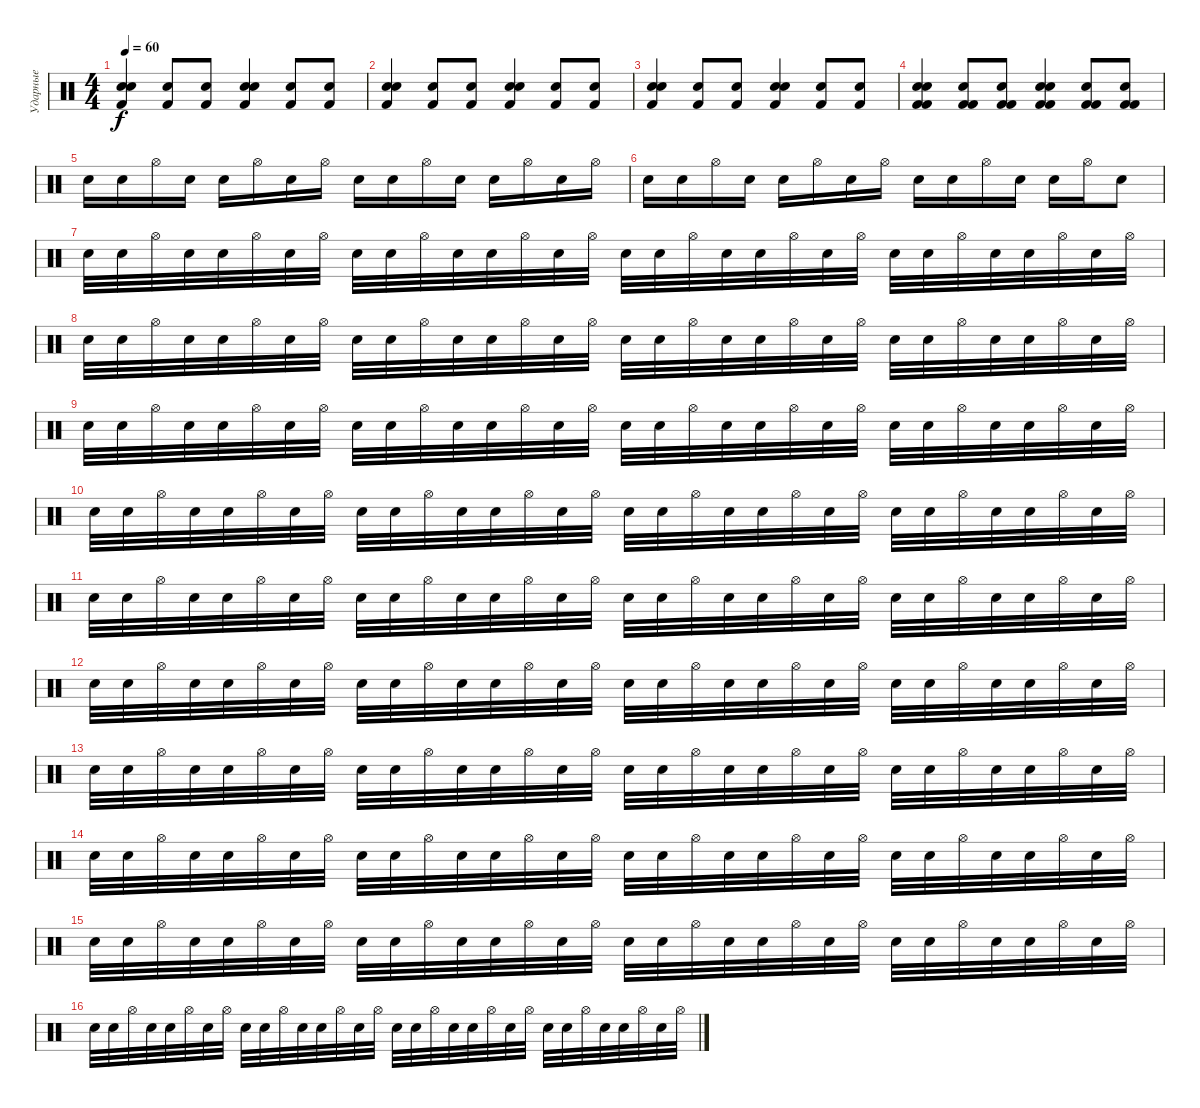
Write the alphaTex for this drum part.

\track ("Ударные" "Ударные") {instrument percussion}
\staff {score}
\articulation defaults
\ts (4 4)
\tempo 60
\clef neutral
\ks c
("Kick (hit) 2" "Electric Snare (hit)" "Electric Snare (hit)").4{dy f} ("Kick (hit) 2" "Electric Snare (hit)").8 ("Kick (hit) 2" "Electric Snare (hit)").8 ("Kick (hit) 2" "Electric Snare (hit)" "Electric Snare (hit)").4 ("Kick (hit) 2" "Electric Snare (hit)").8 ("Kick (hit) 2" "Electric Snare (hit)").8 |
("Kick (hit) 2" "Electric Snare (hit)" "Electric Snare (hit)").4 ("Kick (hit) 2" "Electric Snare (hit)").8 ("Kick (hit) 2" "Electric Snare (hit)").8 ("Kick (hit) 2" "Electric Snare (hit)" "Electric Snare (hit)").4 ("Kick (hit) 2" "Electric Snare (hit)").8 ("Kick (hit) 2" "Electric Snare (hit)").8 |
("Kick (hit) 2" "Electric Snare (hit)" "Electric Snare (hit)").4 ("Kick (hit) 2" "Electric Snare (hit)").8 ("Kick (hit) 2" "Electric Snare (hit)").8 ("Kick (hit) 2" "Electric Snare (hit)" "Electric Snare (hit)").4 ("Kick (hit) 2" "Electric Snare (hit)").8 ("Kick (hit) 2" "Electric Snare (hit)").8 |
("Kick (hit) 2" "Kick (hit) 2" "Electric Snare (hit)" "Electric Snare (hit)").4 ("Kick (hit) 2" "Kick (hit) 2" "Electric Snare (hit)").8 ("Kick (hit) 2" "Kick (hit) 2" "Electric Snare (hit)").8 ("Kick (hit) 2" "Kick (hit) 2" "Electric Snare (hit)" "Electric Snare (hit)").4 ("Kick (hit) 2" "Kick (hit) 2" "Electric Snare (hit)").8 ("Kick (hit) 2" "Kick (hit) 2" "Electric Snare (hit)").8 |
"Electric Snare (hit)".16 "Electric Snare (hit)".16 "Hi-Hat (open)".16 "Electric Snare (hit)".16 "Electric Snare (hit)".16 "Hi-Hat (open)".16 "Electric Snare (hit)".16 "Hi-Hat (open)".16 "Electric Snare (hit)".16 "Electric Snare (hit)".16 "Hi-Hat (open)".16 "Electric Snare (hit)".16 "Electric Snare (hit)".16 "Hi-Hat (open)".16 "Electric Snare (hit)".16 "Hi-Hat (open)".16 |
"Electric Snare (hit)".16 "Electric Snare (hit)".16 "Hi-Hat (open)".16 "Electric Snare (hit)".16 "Electric Snare (hit)".16 "Hi-Hat (open)".16 "Electric Snare (hit)".16 "Hi-Hat (open)".16 "Electric Snare (hit)".16 "Electric Snare (hit)".16 "Hi-Hat (open)".16 "Electric Snare (hit)".16 "Electric Snare (hit)".16 "Hi-Hat (open)".16 "Electric Snare (hit)".8 |
"Electric Snare (hit)".32 "Electric Snare (hit)".32 "Hi-Hat (open)".32 "Electric Snare (hit)".32 "Electric Snare (hit)".32 "Hi-Hat (open)".32 "Electric Snare (hit)".32 "Hi-Hat (open)".32 "Electric Snare (hit)".32 "Electric Snare (hit)".32 "Hi-Hat (open)".32 "Electric Snare (hit)".32 "Electric Snare (hit)".32 "Hi-Hat (open)".32 "Electric Snare (hit)".32 "Hi-Hat (open)".32 "Electric Snare (hit)".32 "Electric Snare (hit)".32 "Hi-Hat (open)".32 "Electric Snare (hit)".32 "Electric Snare (hit)".32 "Hi-Hat (open)".32 "Electric Snare (hit)".32 "Hi-Hat (open)".32 "Electric Snare (hit)".32 "Electric Snare (hit)".32 "Hi-Hat (open)".32 "Electric Snare (hit)".32 "Electric Snare (hit)".32 "Hi-Hat (open)".32 "Electric Snare (hit)".32 "Hi-Hat (open)".32 |
"Electric Snare (hit)".32 "Electric Snare (hit)".32 "Hi-Hat (open)".32 "Electric Snare (hit)".32 "Electric Snare (hit)".32 "Hi-Hat (open)".32 "Electric Snare (hit)".32 "Hi-Hat (open)".32 "Electric Snare (hit)".32 "Electric Snare (hit)".32 "Hi-Hat (open)".32 "Electric Snare (hit)".32 "Electric Snare (hit)".32 "Hi-Hat (open)".32 "Electric Snare (hit)".32 "Hi-Hat (open)".32 "Electric Snare (hit)".32 "Electric Snare (hit)".32 "Hi-Hat (open)".32 "Electric Snare (hit)".32 "Electric Snare (hit)".32 "Hi-Hat (open)".32 "Electric Snare (hit)".32 "Hi-Hat (open)".32 "Electric Snare (hit)".32 "Electric Snare (hit)".32 "Hi-Hat (open)".32 "Electric Snare (hit)".32 "Electric Snare (hit)".32 "Hi-Hat (open)".32 "Electric Snare (hit)".32 "Hi-Hat (open)".32 |
"Electric Snare (hit)".32 "Electric Snare (hit)".32 "Hi-Hat (open)".32 "Electric Snare (hit)".32 "Electric Snare (hit)".32 "Hi-Hat (open)".32 "Electric Snare (hit)".32 "Hi-Hat (open)".32 "Electric Snare (hit)".32 "Electric Snare (hit)".32 "Hi-Hat (open)".32 "Electric Snare (hit)".32 "Electric Snare (hit)".32 "Hi-Hat (open)".32 "Electric Snare (hit)".32 "Hi-Hat (open)".32 "Electric Snare (hit)".32 "Electric Snare (hit)".32 "Hi-Hat (open)".32 "Electric Snare (hit)".32 "Electric Snare (hit)".32 "Hi-Hat (open)".32 "Electric Snare (hit)".32 "Hi-Hat (open)".32 "Electric Snare (hit)".32 "Electric Snare (hit)".32 "Hi-Hat (open)".32 "Electric Snare (hit)".32 "Electric Snare (hit)".32 "Hi-Hat (open)".32 "Electric Snare (hit)".32 "Hi-Hat (open)".32 |
"Electric Snare (hit)".32 "Electric Snare (hit)".32 "Hi-Hat (open)".32 "Electric Snare (hit)".32 "Electric Snare (hit)".32 "Hi-Hat (open)".32 "Electric Snare (hit)".32 "Hi-Hat (open)".32 "Electric Snare (hit)".32 "Electric Snare (hit)".32 "Hi-Hat (open)".32 "Electric Snare (hit)".32 "Electric Snare (hit)".32 "Hi-Hat (open)".32 "Electric Snare (hit)".32 "Hi-Hat (open)".32 "Electric Snare (hit)".32 "Electric Snare (hit)".32 "Hi-Hat (open)".32 "Electric Snare (hit)".32 "Electric Snare (hit)".32 "Hi-Hat (open)".32 "Electric Snare (hit)".32 "Hi-Hat (open)".32 "Electric Snare (hit)".32 "Electric Snare (hit)".32 "Hi-Hat (open)".32 "Electric Snare (hit)".32 "Electric Snare (hit)".32 "Hi-Hat (open)".32 "Electric Snare (hit)".32 "Hi-Hat (open)".32 |
"Electric Snare (hit)".32 "Electric Snare (hit)".32 "Hi-Hat (open)".32 "Electric Snare (hit)".32 "Electric Snare (hit)".32 "Hi-Hat (open)".32 "Electric Snare (hit)".32 "Hi-Hat (open)".32 "Electric Snare (hit)".32 "Electric Snare (hit)".32 "Hi-Hat (open)".32 "Electric Snare (hit)".32 "Electric Snare (hit)".32 "Hi-Hat (open)".32 "Electric Snare (hit)".32 "Hi-Hat (open)".32 "Electric Snare (hit)".32 "Electric Snare (hit)".32 "Hi-Hat (open)".32 "Electric Snare (hit)".32 "Electric Snare (hit)".32 "Hi-Hat (open)".32 "Electric Snare (hit)".32 "Hi-Hat (open)".32 "Electric Snare (hit)".32 "Electric Snare (hit)".32 "Hi-Hat (open)".32 "Electric Snare (hit)".32 "Electric Snare (hit)".32 "Hi-Hat (open)".32 "Electric Snare (hit)".32 "Hi-Hat (open)".32 |
"Electric Snare (hit)".32 "Electric Snare (hit)".32 "Hi-Hat (open)".32 "Electric Snare (hit)".32 "Electric Snare (hit)".32 "Hi-Hat (open)".32 "Electric Snare (hit)".32 "Hi-Hat (open)".32 "Electric Snare (hit)".32 "Electric Snare (hit)".32 "Hi-Hat (open)".32 "Electric Snare (hit)".32 "Electric Snare (hit)".32 "Hi-Hat (open)".32 "Electric Snare (hit)".32 "Hi-Hat (open)".32 "Electric Snare (hit)".32 "Electric Snare (hit)".32 "Hi-Hat (open)".32 "Electric Snare (hit)".32 "Electric Snare (hit)".32 "Hi-Hat (open)".32 "Electric Snare (hit)".32 "Hi-Hat (open)".32 "Electric Snare (hit)".32 "Electric Snare (hit)".32 "Hi-Hat (open)".32 "Electric Snare (hit)".32 "Electric Snare (hit)".32 "Hi-Hat (open)".32 "Electric Snare (hit)".32 "Hi-Hat (open)".32 |
"Electric Snare (hit)".32 "Electric Snare (hit)".32 "Hi-Hat (open)".32 "Electric Snare (hit)".32 "Electric Snare (hit)".32 "Hi-Hat (open)".32 "Electric Snare (hit)".32 "Hi-Hat (open)".32 "Electric Snare (hit)".32 "Electric Snare (hit)".32 "Hi-Hat (open)".32 "Electric Snare (hit)".32 "Electric Snare (hit)".32 "Hi-Hat (open)".32 "Electric Snare (hit)".32 "Hi-Hat (open)".32 "Electric Snare (hit)".32 "Electric Snare (hit)".32 "Hi-Hat (open)".32 "Electric Snare (hit)".32 "Electric Snare (hit)".32 "Hi-Hat (open)".32 "Electric Snare (hit)".32 "Hi-Hat (open)".32 "Electric Snare (hit)".32 "Electric Snare (hit)".32 "Hi-Hat (open)".32 "Electric Snare (hit)".32 "Electric Snare (hit)".32 "Hi-Hat (open)".32 "Electric Snare (hit)".32 "Hi-Hat (open)".32 |
"Electric Snare (hit)".32 "Electric Snare (hit)".32 "Hi-Hat (open)".32 "Electric Snare (hit)".32 "Electric Snare (hit)".32 "Hi-Hat (open)".32 "Electric Snare (hit)".32 "Hi-Hat (open)".32 "Electric Snare (hit)".32 "Electric Snare (hit)".32 "Hi-Hat (open)".32 "Electric Snare (hit)".32 "Electric Snare (hit)".32 "Hi-Hat (open)".32 "Electric Snare (hit)".32 "Hi-Hat (open)".32 "Electric Snare (hit)".32 "Electric Snare (hit)".32 "Hi-Hat (open)".32 "Electric Snare (hit)".32 "Electric Snare (hit)".32 "Hi-Hat (open)".32 "Electric Snare (hit)".32 "Hi-Hat (open)".32 "Electric Snare (hit)".32 "Electric Snare (hit)".32 "Hi-Hat (open)".32 "Electric Snare (hit)".32 "Electric Snare (hit)".32 "Hi-Hat (open)".32 "Electric Snare (hit)".32 "Hi-Hat (open)".32 |
"Electric Snare (hit)".32 "Electric Snare (hit)".32 "Hi-Hat (open)".32 "Electric Snare (hit)".32 "Electric Snare (hit)".32 "Hi-Hat (open)".32 "Electric Snare (hit)".32 "Hi-Hat (open)".32 "Electric Snare (hit)".32 "Electric Snare (hit)".32 "Hi-Hat (open)".32 "Electric Snare (hit)".32 "Electric Snare (hit)".32 "Hi-Hat (open)".32 "Electric Snare (hit)".32 "Hi-Hat (open)".32 "Electric Snare (hit)".32 "Electric Snare (hit)".32 "Hi-Hat (open)".32 "Electric Snare (hit)".32 "Electric Snare (hit)".32 "Hi-Hat (open)".32 "Electric Snare (hit)".32 "Hi-Hat (open)".32 "Electric Snare (hit)".32 "Electric Snare (hit)".32 "Hi-Hat (open)".32 "Electric Snare (hit)".32 "Electric Snare (hit)".32 "Hi-Hat (open)".32 "Electric Snare (hit)".32 "Hi-Hat (open)".32 |
"Electric Snare (hit)".32 "Electric Snare (hit)".32 "Hi-Hat (open)".32 "Electric Snare (hit)".32 "Electric Snare (hit)".32 "Hi-Hat (open)".32 "Electric Snare (hit)".32 "Hi-Hat (open)".32 "Electric Snare (hit)".32 "Electric Snare (hit)".32 "Hi-Hat (open)".32 "Electric Snare (hit)".32 "Electric Snare (hit)".32 "Hi-Hat (open)".32 "Electric Snare (hit)".32 "Hi-Hat (open)".32 "Electric Snare (hit)".32 "Electric Snare (hit)".32 "Hi-Hat (open)".32 "Electric Snare (hit)".32 "Electric Snare (hit)".32 "Hi-Hat (open)".32 "Electric Snare (hit)".32 "Hi-Hat (open)".32 "Electric Snare (hit)".32 "Electric Snare (hit)".32 "Hi-Hat (open)".32 "Electric Snare (hit)".32 "Electric Snare (hit)".32 "Hi-Hat (open)".32 "Electric Snare (hit)".32 "Hi-Hat (open)".32
